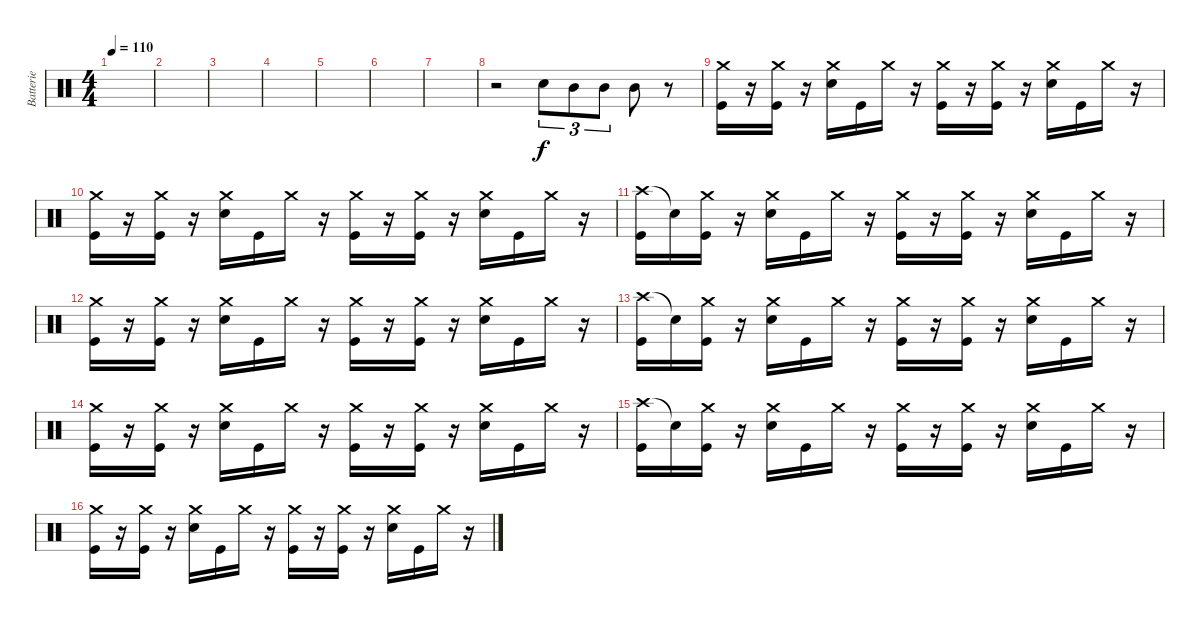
\track ("Batterie" "Batterie") {instrument percussion}
\staff {score}
\articulation defaults
\ts (4 4)
\tempo 110
\clef neutral
\ks c
|
|
|
|
|
|
|
r.2 "Electric Snare (hit)".8{tu (3 2)} "Mid Tom (hit)".8{tu (3 2)} "Mid Tom (hit)".8{tu (3 2)} "Mid Tom (hit)".8 r.8 |
("Crash medium (hit)" "Kick (hit)").16 r.16 ("Crash medium (hit)" "Kick (hit)").16 r.16 ("Crash medium (hit)" "Electric Snare (hit)").16 "Kick (hit)".16 "Crash medium (hit)".16 r.16 ("Crash medium (hit)" "Kick (hit)").16 r.16 ("Crash medium (hit)" "Kick (hit)").16 r.16 ("Crash medium (hit)" "Electric Snare (hit)").16 "Kick (hit)".16 "Crash medium (hit)".16 r.16 |
("Crash medium (hit)" "Kick (hit)").16 r.16 ("Crash medium (hit)" "Kick (hit)").16 r.16 ("Crash medium (hit)" "Electric Snare (hit)").16 "Kick (hit)".16 "Crash medium (hit)".16 r.16 ("Crash medium (hit)" "Kick (hit)").16 r.16 ("Crash medium (hit)" "Kick (hit)").16 r.16 ("Crash medium (hit)" "Electric Snare (hit)").16 "Kick (hit)".16 "Crash medium (hit)".16 r.16 |
("Crash high (hit)" "Kick (hit)").16 "Snare (hit)"{t}.16 ("Crash medium (hit)" "Kick (hit)").16 r.16 ("Crash medium (hit)" "Electric Snare (hit)").16 "Kick (hit)".16 "Crash medium (hit)".16 r.16 ("Crash medium (hit)" "Kick (hit)").16 r.16 ("Crash medium (hit)" "Kick (hit)").16 r.16 ("Crash medium (hit)" "Electric Snare (hit)").16 "Kick (hit)".16 "Crash medium (hit)".16 r.16 |
("Crash medium (hit)" "Kick (hit)").16 r.16 ("Crash medium (hit)" "Kick (hit)").16 r.16 ("Crash medium (hit)" "Electric Snare (hit)").16 "Kick (hit)".16 "Crash medium (hit)".16 r.16 ("Crash medium (hit)" "Kick (hit)").16 r.16 ("Crash medium (hit)" "Kick (hit)").16 r.16 ("Crash medium (hit)" "Electric Snare (hit)").16 "Kick (hit)".16 "Crash medium (hit)".16 r.16 |
("Crash high (hit)" "Kick (hit)").16 "Snare (hit)"{t}.16 ("Crash medium (hit)" "Kick (hit)").16 r.16 ("Crash medium (hit)" "Electric Snare (hit)").16 "Kick (hit)".16 "Crash medium (hit)".16 r.16 ("Crash medium (hit)" "Kick (hit)").16 r.16 ("Crash medium (hit)" "Kick (hit)").16 r.16 ("Crash medium (hit)" "Electric Snare (hit)").16 "Kick (hit)".16 "Crash medium (hit)".16 r.16 |
("Crash medium (hit)" "Kick (hit)").16 r.16 ("Crash medium (hit)" "Kick (hit)").16 r.16 ("Crash medium (hit)" "Electric Snare (hit)").16 "Kick (hit)".16 "Crash medium (hit)".16 r.16 ("Crash medium (hit)" "Kick (hit)").16 r.16 ("Crash medium (hit)" "Kick (hit)").16 r.16 ("Crash medium (hit)" "Electric Snare (hit)").16 "Kick (hit)".16 "Crash medium (hit)".16 r.16 |
("Crash high (hit)" "Kick (hit)").16 "Snare (hit)"{t}.16 ("Crash medium (hit)" "Kick (hit)").16 r.16 ("Crash medium (hit)" "Electric Snare (hit)").16 "Kick (hit)".16 "Crash medium (hit)".16 r.16 ("Crash medium (hit)" "Kick (hit)").16 r.16 ("Crash medium (hit)" "Kick (hit)").16 r.16 ("Crash medium (hit)" "Electric Snare (hit)").16 "Kick (hit)".16 "Crash medium (hit)".16 r.16 |
("Crash medium (hit)" "Kick (hit)").16 r.16 ("Crash medium (hit)" "Kick (hit)").16 r.16 ("Crash medium (hit)" "Electric Snare (hit)").16 "Kick (hit)".16 "Crash medium (hit)".16 r.16 ("Crash medium (hit)" "Kick (hit)").16 r.16 ("Crash medium (hit)" "Kick (hit)").16 r.16 ("Crash medium (hit)" "Electric Snare (hit)").16 "Kick (hit)".16 "Crash medium (hit)".16 r.16
